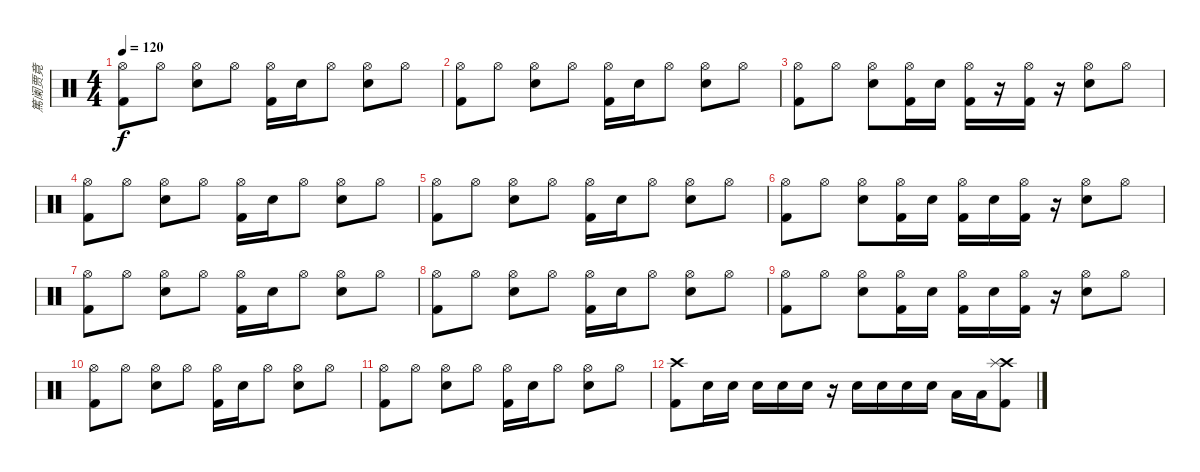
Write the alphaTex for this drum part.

\track ("篤阑贾竟" "篤阑贾竟") {instrument percussion}
\staff {score}
\articulation defaults
\ts (4 4)
\tempo 120
\clef neutral
\ks c
("Hi-Hat (open)" "Kick (hit) 2").8{dy f} "Hi-Hat (open)".8 ("Hi-Hat (open)" "Electric Snare (hit)").8 "Hi-Hat (open)".8 ("Hi-Hat (open)" "Kick (hit) 2").16 "Electric Snare (hit)".16 "Hi-Hat (open)".8 ("Hi-Hat (open)" "Electric Snare (hit)").8 "Hi-Hat (open)".8 |
("Hi-Hat (open)" "Kick (hit) 2").8 "Hi-Hat (open)".8 ("Hi-Hat (open)" "Electric Snare (hit)").8 "Hi-Hat (open)".8 ("Hi-Hat (open)" "Kick (hit) 2").16 "Electric Snare (hit)".16 "Hi-Hat (open)".8 ("Hi-Hat (open)" "Electric Snare (hit)").8 "Hi-Hat (open)".8 |
("Hi-Hat (open)" "Kick (hit) 2").8 "Hi-Hat (open)".8 ("Hi-Hat (open)" "Electric Snare (hit)").8 ("Hi-Hat (open)" "Kick (hit) 2").16 "Electric Snare (hit)".16 ("Hi-Hat (open)" "Kick (hit) 2").16 r.16 ("Hi-Hat (open)" "Kick (hit) 2").16 r.16 ("Hi-Hat (open)" "Electric Snare (hit)").8 "Hi-Hat (open)".8 |
("Hi-Hat (open)" "Kick (hit) 2").8 "Hi-Hat (open)".8 ("Hi-Hat (open)" "Electric Snare (hit)").8 "Hi-Hat (open)".8 ("Hi-Hat (open)" "Kick (hit) 2").16 "Electric Snare (hit)".16 "Hi-Hat (open)".8 ("Hi-Hat (open)" "Electric Snare (hit)").8 "Hi-Hat (open)".8 |
("Hi-Hat (open)" "Kick (hit) 2").8 "Hi-Hat (open)".8 ("Hi-Hat (open)" "Electric Snare (hit)").8 "Hi-Hat (open)".8 ("Hi-Hat (open)" "Kick (hit) 2").16 "Electric Snare (hit)".16 "Hi-Hat (open)".8 ("Hi-Hat (open)" "Electric Snare (hit)").8 "Hi-Hat (open)".8 |
("Hi-Hat (open)" "Kick (hit) 2").8 "Hi-Hat (open)".8 ("Hi-Hat (open)" "Electric Snare (hit)").8 ("Hi-Hat (open)" "Kick (hit) 2").16 "Electric Snare (hit)".16 ("Hi-Hat (open)" "Kick (hit) 2").16 "Electric Snare (hit)".16 ("Hi-Hat (open)" "Kick (hit) 2").16 r.16 ("Hi-Hat (open)" "Electric Snare (hit)").8 "Hi-Hat (open)".8 |
("Hi-Hat (open)" "Kick (hit) 2").8 "Hi-Hat (open)".8 ("Hi-Hat (open)" "Electric Snare (hit)").8 "Hi-Hat (open)".8 ("Hi-Hat (open)" "Kick (hit) 2").16 "Electric Snare (hit)".16 "Hi-Hat (open)".8 ("Hi-Hat (open)" "Electric Snare (hit)").8 "Hi-Hat (open)".8 |
("Hi-Hat (open)" "Kick (hit) 2").8 "Hi-Hat (open)".8 ("Hi-Hat (open)" "Electric Snare (hit)").8 "Hi-Hat (open)".8 ("Hi-Hat (open)" "Kick (hit) 2").16 "Electric Snare (hit)".16 "Hi-Hat (open)".8 ("Hi-Hat (open)" "Electric Snare (hit)").8 "Hi-Hat (open)".8 |
("Hi-Hat (open)" "Kick (hit) 2").8 "Hi-Hat (open)".8 ("Hi-Hat (open)" "Electric Snare (hit)").8 ("Hi-Hat (open)" "Kick (hit) 2").16 "Electric Snare (hit)".16 ("Hi-Hat (open)" "Kick (hit) 2").16 "Electric Snare (hit)".16 ("Hi-Hat (open)" "Kick (hit) 2").16 r.16 ("Hi-Hat (open)" "Electric Snare (hit)").8 "Hi-Hat (open)".8 |
("Hi-Hat (open)" "Kick (hit) 2").8 "Hi-Hat (open)".8 ("Hi-Hat (open)" "Electric Snare (hit)").8 "Hi-Hat (open)".8 ("Hi-Hat (open)" "Kick (hit) 2").16 "Electric Snare (hit)".16 "Hi-Hat (open)".8 ("Hi-Hat (open)" "Electric Snare (hit)").8 "Hi-Hat (open)".8 |
("Hi-Hat (open)" "Kick (hit) 2").8 "Hi-Hat (open)".8 ("Hi-Hat (open)" "Electric Snare (hit)").8 "Hi-Hat (open)".8 ("Hi-Hat (open)" "Kick (hit) 2").16 "Electric Snare (hit)".16 "Hi-Hat (open)".8 ("Hi-Hat (open)" "Electric Snare (hit)").8 "Hi-Hat (open)".8 |
("Crash high (hit)" "Kick (hit) 2").8 "Electric Snare (hit)".16 "Electric Snare (hit)".16 "Electric Snare (hit)".16 "Electric Snare (hit)".16 "Electric Snare (hit)".16 r.16 "Electric Snare (hit)".16 "Electric Snare (hit)".16 "Electric Snare (hit)".16 "Electric Snare (hit)".16 "Low Tom (hit)".16 "Low Tom (hit)".16 ("Crash high (hit)" "Splash (hit)" "Kick (hit) 2").8
